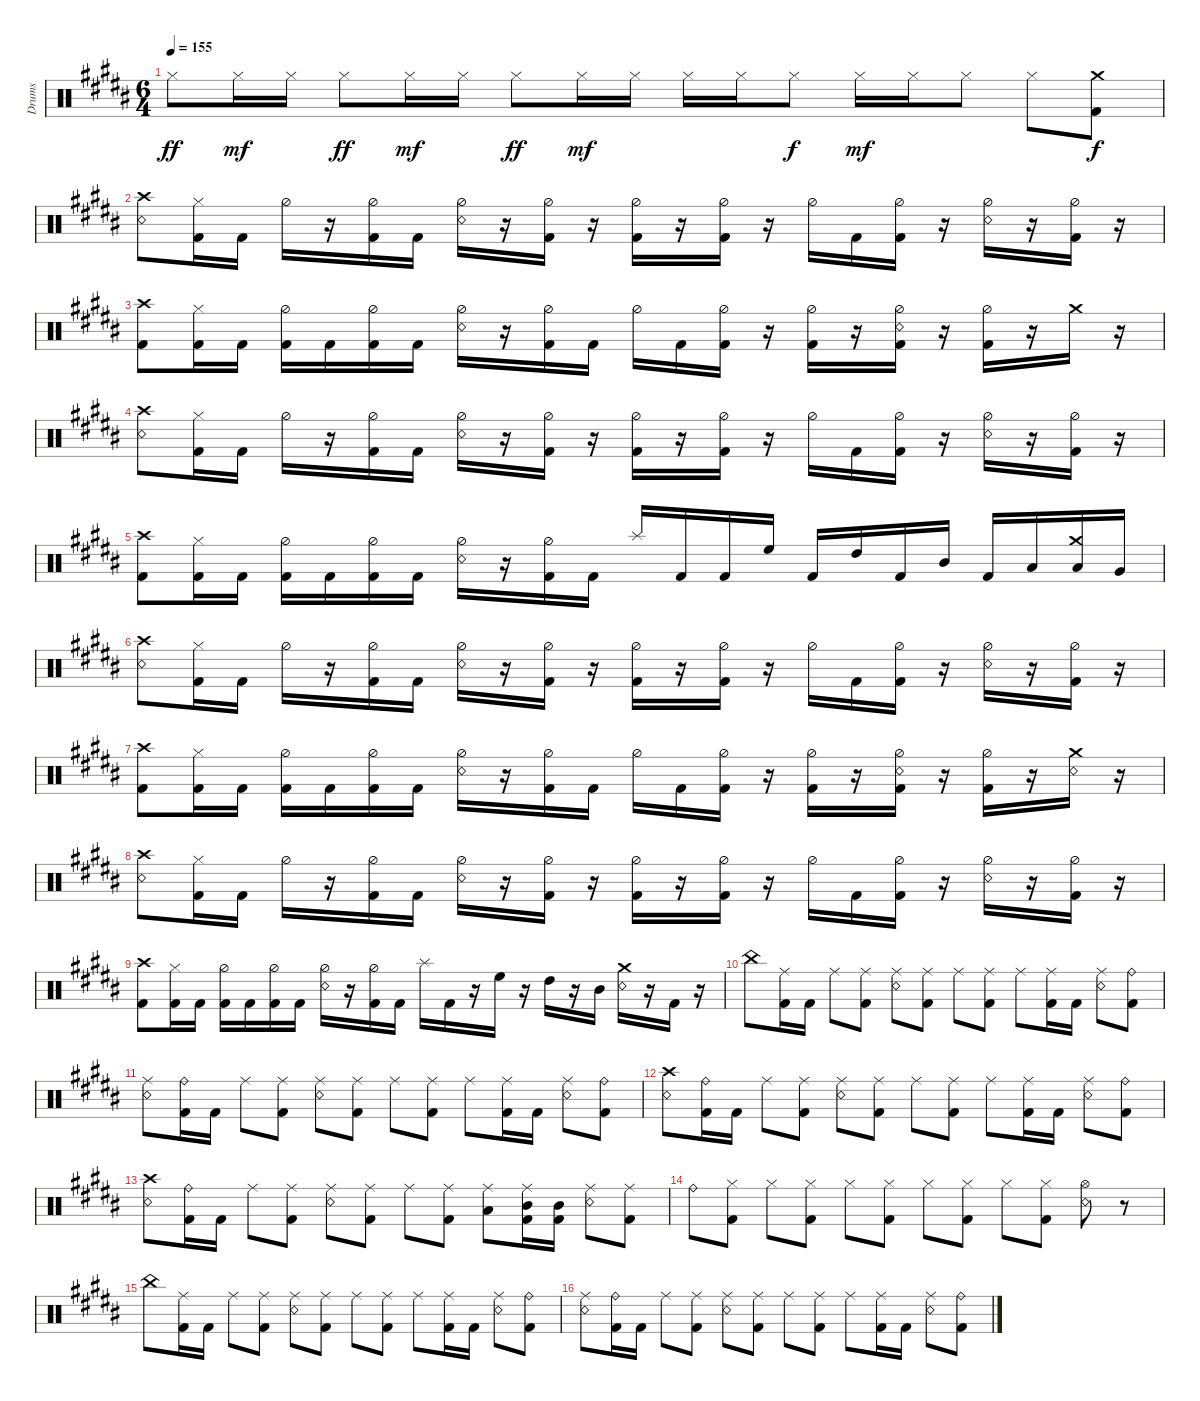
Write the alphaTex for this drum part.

\bracketExtendMode groupsimilarinstruments
\otherSystemsTrackNameOrientation horizontal
\track ("Drumkit" "Drums") {instrument percussion}
\staff {score}
\articulation defaults
\ts (6 4)
\tempo 155
\clef neutral
\ks b "Hi-Hat (closed)"{acc bb}.8{dy ff beam Down} "Hi-Hat (closed)"{acc bb}.16{dy mf beam Down} "Hi-Hat (closed)"{acc bb}.16{beam Down} "Hi-Hat (closed)"{acc bb}.8{dy ff beam Down} "Hi-Hat (closed)"{acc bb}.16{dy mf beam Down} "Hi-Hat (closed)"{acc bb}.16{beam Down} "Hi-Hat (closed)"{acc bb}.8{dy ff beam Down} "Hi-Hat (closed)"{acc bb}.16{dy mf beam Down} "Hi-Hat (closed)"{acc bb}.16{beam Down} "Hi-Hat (closed)"{acc bb}.16{beam Down} "Hi-Hat (closed)"{acc bb}.16{beam Down} "Hi-Hat (closed)"{acc bb}.8{dy f beam Down} "Hi-Hat (closed)"{acc bb}.16{dy mf beam Down} "Hi-Hat (closed)"{acc bb}.16{beam Down} "Hi-Hat (closed)"{acc bb}.8{beam Down} "Hi-Hat (closed)"{acc bb}.8{beam Down}
("Crash medium (hit)"{acc bb} "Kick (hit) 2"{acc bb}).8{dy f beam Down} |
("Crash high (hit)"{acc bb} "Snare (rim shot)"{acc bb}).8{beam Down} ("Kick (hit) 2"{acc bb} "Hi-Hat (closed)"{acc bb}).16{beam Down} "Kick (hit) 2"{acc bb}.16{beam Down} "Hi-Hat (half)"{acc bb}.16{beam Down} r.16{beam Down} ("Kick (hit) 2"{acc bb} "Hi-Hat (half)"{acc bb}).16{beam Down} "Kick (hit) 2"{acc bb}.16{beam Down} ("Hi-Hat (half)"{acc bb} "Snare (rim shot)"{acc bb}).16{beam Down} r.16{beam Down} ("Kick (hit) 2"{acc bb} "Hi-Hat (half)"{acc bb}).16{beam Down} r.16{beam Down} ("Kick (hit) 2"{acc bb} "Hi-Hat (half)"{acc bb}).16{beam Down} r.16{beam Down} ("Kick (hit) 2"{acc bb} "Hi-Hat (half)"{acc bb}).16{beam Down} r.16{beam Down} "Hi-Hat (half)"{acc bb}.16{beam Down} "Kick (hit) 2"{acc bb}.16{beam Down} ("Kick (hit) 2"{acc bb} "Hi-Hat (half)"{acc bb}).16{beam Down} r.16{beam Down} ("Hi-Hat (half)"{acc bb} "Snare (rim shot)"{acc bb}).16{beam Down} r.16{beam Down} ("Kick (hit) 2"{acc bb} "Hi-Hat (half)"{acc bb}).16{beam Down} r.16{beam Down} |
("Crash high (hit)"{acc bb} "Kick (hit) 2"{acc bb}).8{beam Down} ("Kick (hit) 2"{acc bb} "Hi-Hat (closed)"{acc bb}).16{beam Down} "Kick (hit) 2"{acc bb}.16{beam Down} ("Hi-Hat (half)"{acc bb} "Kick (hit) 2"{acc bb}).16{beam Down} "Kick (hit) 2"{acc bb}.16{beam Down} ("Kick (hit) 2"{acc bb} "Hi-Hat (half)"{acc bb}).16{beam Down} "Kick (hit) 2"{acc bb}.16{beam Down} ("Hi-Hat (half)"{acc bb} "Snare (rim shot)"{acc bb}).16{beam Down} r.16{beam Down} ("Kick (hit) 2"{acc bb} "Hi-Hat (half)"{acc bb}).16{beam Down} "Kick (hit) 2"{acc bb}.16{beam Down} "Hi-Hat (half)"{acc bb}.16{beam Down} "Kick (hit) 2"{acc bb}.16{beam Down} ("Kick (hit) 2"{acc bb} "Hi-Hat (half)"{acc bb}).16{beam Down} r.16{beam Down} ("Hi-Hat (half)"{acc bb} "Kick (hit) 2"{acc bb}).16{beam Down} r.16{beam Down} ("Hi-Hat (half)"{acc bb} "Kick (hit) 2"{acc bb} "Snare (rim shot)"{acc bb}).16{beam Down} r.16{beam Down} ("Hi-Hat (half)"{acc bb} "Kick (hit) 2"{acc bb}).16{beam Down} r.16{beam Down} "Crash medium (hit)"{acc bb}.16{beam Down} r.16{beam Down} |
("Crash high (hit)"{acc bb} "Snare (rim shot)"{acc bb}).8{beam Down} ("Kick (hit) 2"{acc bb} "Hi-Hat (closed)"{acc bb}).16{beam Down} "Kick (hit) 2"{acc bb}.16{beam Down} "Hi-Hat (half)"{acc bb}.16{beam Down} r.16{beam Down} ("Kick (hit) 2"{acc bb} "Hi-Hat (half)"{acc bb}).16{beam Down} "Kick (hit) 2"{acc bb}.16{beam Down} ("Hi-Hat (half)"{acc bb} "Snare (rim shot)"{acc bb}).16{beam Down} r.16{beam Down} ("Kick (hit) 2"{acc bb} "Hi-Hat (half)"{acc bb}).16{beam Down} r.16{beam Down} ("Kick (hit) 2"{acc bb} "Hi-Hat (half)"{acc bb}).16{beam Down} r.16{beam Down} ("Kick (hit) 2"{acc bb} "Hi-Hat (half)"{acc bb}).16{beam Down} r.16{beam Down} "Hi-Hat (half)"{acc bb}.16{beam Down} "Kick (hit) 2"{acc bb}.16{beam Down} ("Kick (hit) 2"{acc bb} "Hi-Hat (half)"{acc bb}).16{beam Down} r.16{beam Down} ("Hi-Hat (half)"{acc bb} "Snare (rim shot)"{acc bb}).16{beam Down} r.16{beam Down} ("Kick (hit) 2"{acc bb} "Hi-Hat (half)"{acc bb}).16{beam Down} r.16{beam Down} |
("Crash high (hit)"{acc bb} "Kick (hit) 2"{acc bb}).8{beam Down} ("Kick (hit) 2"{acc bb} "Hi-Hat (closed)"{acc bb}).16{beam Down} "Kick (hit) 2"{acc bb}.16{beam Down} ("Hi-Hat (half)"{acc bb} "Kick (hit) 2"{acc bb}).16{beam Down} "Kick (hit) 2"{acc bb}.16{beam Down} ("Kick (hit) 2"{acc bb} "Hi-Hat (half)"{acc bb}).16{beam Down} "Kick (hit) 2"{acc bb}.16{beam Down} ("Hi-Hat (half)"{acc bb} "Snare (rim shot)"{acc bb}).16{beam Down} r.16{beam Down} ("Kick (hit) 2"{acc bb} "Hi-Hat (half)"{acc bb}).16{beam Down} "Kick (hit) 2"{acc bb}.16{beam Down} "Splash (hit)"{acc bb}.16{beam Up} "Kick (hit) 2"{acc bb}.16{beam Up} "Kick (hit) 2"{acc bb}.16{beam Up} "High Floor Tom (hit)"{acc bb}.16{beam Up} "Kick (hit) 2"{acc bb}.16{beam Up} "High Tom (hit)"{acc bb}.16{beam Up} "Kick (hit) 2"{acc bb}.16{beam Up} "Mid Tom (hit)"{acc bb}.16{beam Up} "Kick (hit) 2"{acc bb}.16{beam Up} "Low Tom (hit)"{acc bb}.16{beam Up} ("Low Tom (hit)"{acc bb} "Crash medium (hit)"{acc bb}).16{beam Up} "Very Low Tom (hit)"{acc bb}.16{beam Up} |
("Crash high (hit)"{acc bb} "Snare (rim shot)"{acc bb}).8{beam Down} ("Kick (hit) 2"{acc bb} "Hi-Hat (closed)"{acc bb}).16{beam Down} "Kick (hit) 2"{acc bb}.16{beam Down} "Hi-Hat (half)"{acc bb}.16{beam Down} r.16{beam Down} ("Kick (hit) 2"{acc bb} "Hi-Hat (half)"{acc bb}).16{beam Down} "Kick (hit) 2"{acc bb}.16{beam Down} ("Hi-Hat (half)"{acc bb} "Snare (rim shot)"{acc bb}).16{beam Down} r.16{beam Down} ("Kick (hit) 2"{acc bb} "Hi-Hat (half)"{acc bb}).16{beam Down} r.16{beam Down} ("Kick (hit) 2"{acc bb} "Hi-Hat (half)"{acc bb}).16{beam Down} r.16{beam Down} ("Kick (hit) 2"{acc bb} "Hi-Hat (half)"{acc bb}).16{beam Down} r.16{beam Down} "Hi-Hat (half)"{acc bb}.16{beam Down} "Kick (hit) 2"{acc bb}.16{beam Down} ("Kick (hit) 2"{acc bb} "Hi-Hat (half)"{acc bb}).16{beam Down} r.16{beam Down} ("Hi-Hat (half)"{acc bb} "Snare (rim shot)"{acc bb}).16{beam Down} r.16{beam Down} ("Kick (hit) 2"{acc bb} "Hi-Hat (half)"{acc bb}).16{beam Down} r.16{beam Down} |
("Crash high (hit)"{acc bb} "Kick (hit) 2"{acc bb}).8{beam Down} ("Kick (hit) 2"{acc bb} "Hi-Hat (closed)"{acc bb}).16{beam Down} "Kick (hit) 2"{acc bb}.16{beam Down} ("Hi-Hat (half)"{acc bb} "Kick (hit) 2"{acc bb}).16{beam Down} "Kick (hit) 2"{acc bb}.16{beam Down} ("Kick (hit) 2"{acc bb} "Hi-Hat (half)"{acc bb}).16{beam Down} "Kick (hit) 2"{acc bb}.16{beam Down} ("Hi-Hat (half)"{acc bb} "Snare (rim shot)"{acc bb}).16{beam Down} r.16{beam Down} ("Kick (hit) 2"{acc bb} "Hi-Hat (half)"{acc bb}).16{beam Down} "Kick (hit) 2"{acc bb}.16{beam Down} "Hi-Hat (half)"{acc bb}.16{beam Down} "Kick (hit) 2"{acc bb}.16{beam Down} ("Kick (hit) 2"{acc bb} "Hi-Hat (half)"{acc bb}).16{beam Down} r.16{beam Down} ("Hi-Hat (half)"{acc bb} "Kick (hit) 2"{acc bb}).16{beam Down} r.16{beam Down} ("Hi-Hat (half)"{acc bb} "Kick (hit) 2"{acc bb} "Snare (rim shot)"{acc bb}).16{beam Down} r.16{beam Down} ("Hi-Hat (half)"{acc bb} "Kick (hit) 2"{acc bb}).16{beam Down} r.16{beam Down} ("Crash medium (hit)"{acc bb} "Snare (rim shot)"{acc bb}).16{beam Down} r.16{beam Down} |
("Crash high (hit)"{acc bb} "Snare (rim shot)"{acc bb}).8{beam Down} ("Kick (hit) 2"{acc bb} "Hi-Hat (closed)"{acc bb}).16{beam Down} "Kick (hit) 2"{acc bb}.16{beam Down} "Hi-Hat (half)"{acc bb}.16{beam Down} r.16{beam Down} ("Kick (hit) 2"{acc bb} "Hi-Hat (half)"{acc bb}).16{beam Down} "Kick (hit) 2"{acc bb}.16{beam Down} ("Hi-Hat (half)"{acc bb} "Snare (rim shot)"{acc bb}).16{beam Down} r.16{beam Down} ("Kick (hit) 2"{acc bb} "Hi-Hat (half)"{acc bb}).16{beam Down} r.16{beam Down} ("Kick (hit) 2"{acc bb} "Hi-Hat (half)"{acc bb}).16{beam Down} r.16{beam Down} ("Kick (hit) 2"{acc bb} "Hi-Hat (half)"{acc bb}).16{beam Down} r.16{beam Down} "Hi-Hat (half)"{acc bb}.16{beam Down} "Kick (hit) 2"{acc bb}.16{beam Down} ("Kick (hit) 2"{acc bb} "Hi-Hat (half)"{acc bb}).16{beam Down} r.16{beam Down} ("Hi-Hat (half)"{acc bb} "Snare (rim shot)"{acc bb}).16{beam Down} r.16{beam Down} ("Kick (hit) 2"{acc bb} "Hi-Hat (half)"{acc bb}).16{beam Down} r.16{beam Down} |
("Crash high (hit)"{acc bb} "Kick (hit) 2"{acc bb}).8{beam Down} ("Kick (hit) 2"{acc bb} "Hi-Hat (closed)"{acc bb}).16{beam Down} "Kick (hit) 2"{acc bb}.16{beam Down} ("Hi-Hat (half)"{acc bb} "Kick (hit) 2"{acc bb}).16{beam Down} "Kick (hit) 2"{acc bb}.16{beam Down} ("Kick (hit) 2"{acc bb} "Hi-Hat (half)"{acc bb}).16{beam Down} "Kick (hit) 2"{acc bb}.16{beam Down} ("Hi-Hat (half)"{acc bb} "Snare (rim shot)"{acc bb}).16{beam Down} r.16{beam Down} ("Kick (hit) 2"{acc bb} "Hi-Hat (half)"{acc bb}).16{beam Down} "Kick (hit) 2"{acc bb}.16{beam Down} "Splash (hit)"{acc bb}.16{beam Down} "Kick (hit) 2"{acc bb}.16{beam Down} r.16{beam Down} "High Floor Tom (hit)"{acc bb}.16{beam Down} r.16{beam Down} "High Tom (hit)"{acc bb}.16{beam Down} r.16{beam Down} "Mid Tom (hit)"{acc bb}.16{beam Down} ("Snare (rim shot)"{acc bb} "Crash medium (hit)"{acc bb}).16{beam Down} r.16{beam Down} "Kick (hit) 2"{acc bb}.16{beam Down} r.16{beam Down} |
"China (hit)"{acc bb}.8{beam Down} ("Ride (middle)"{acc bb} "Kick (hit) 2"{acc bb}).16{beam Down} "Kick (hit) 2"{acc bb}.16{beam Down} "Ride (middle)"{acc bb}.8{beam Down} ("Ride (middle)"{acc bb} "Kick (hit) 2"{acc bb}).8{beam Down} ("Ride (middle)"{acc bb} "Snare (rim shot)"{acc bb}).8{beam Down} ("Ride (middle)"{acc bb} "Kick (hit) 2"{acc bb}).8{beam Down} "Ride (middle)"{acc bb}.8{beam Down} ("Kick (hit) 2"{acc bb} "Ride (middle)"{acc bb}).8{beam Down} "Ride (middle)"{acc bb}.8{beam Down} ("Ride (middle)"{acc bb} "Kick (hit) 2"{acc bb}).16{beam Down} "Kick (hit) 2"{acc bb}.16{beam Down} ("Ride (middle)"{acc bb} "Snare (rim shot)"{acc bb}).8{beam Down} ("Ride (bell)"{acc bb} "Kick (hit) 2"{acc bb}).8{beam Down} |
("Snare (rim shot)"{acc bb} "Ride (middle)"{acc bb}).8{beam Down} ("Ride (bell)"{acc bb} "Kick (hit) 2"{acc bb}).16{beam Down} "Kick (hit) 2"{acc bb}.16{beam Down} "Ride (middle)"{acc bb}.8{beam Down} ("Ride (middle)"{acc bb} "Kick (hit) 2"{acc bb}).8{beam Down} ("Ride (middle)"{acc bb} "Snare (rim shot)"{acc bb}).8{beam Down} ("Ride (middle)"{acc bb} "Kick (hit) 2"{acc bb}).8{beam Down} "Ride (middle)"{acc bb}.8{beam Down} ("Kick (hit) 2"{acc bb} "Ride (middle)"{acc bb}).8{beam Down} "Ride (middle)"{acc bb}.8{beam Down} ("Ride (middle)"{acc bb} "Kick (hit) 2"{acc bb}).16{beam Down} "Kick (hit) 2"{acc bb}.16{beam Down} ("Ride (middle)"{acc bb} "Snare (rim shot)"{acc bb}).8{beam Down} ("Ride (bell)"{acc bb} "Kick (hit) 2"{acc bb}).8{beam Down} |
("Snare (rim shot)"{acc bb} "Crash high (hit)"{acc bb}).8{beam Down} ("Ride (bell)"{acc bb} "Kick (hit) 2"{acc bb}).16{beam Down} "Kick (hit) 2"{acc bb}.16{beam Down} "Ride (middle)"{acc bb}.8{beam Down} ("Ride (middle)"{acc bb} "Kick (hit) 2"{acc bb}).8{beam Down} ("Ride (middle)"{acc bb} "Snare (rim shot)"{acc bb}).8{beam Down} ("Ride (middle)"{acc bb} "Kick (hit) 2"{acc bb}).8{beam Down} "Ride (middle)"{acc bb}.8{beam Down} ("Kick (hit) 2"{acc bb} "Ride (middle)"{acc bb}).8{beam Down} "Ride (middle)"{acc bb}.8{beam Down} ("Ride (middle)"{acc bb} "Kick (hit) 2"{acc bb}).16{beam Down} "Kick (hit) 2"{acc bb}.16{beam Down} ("Ride (middle)"{acc bb} "Snare (rim shot)"{acc bb}).8{beam Down} ("Ride (bell)"{acc bb} "Kick (hit) 2"{acc bb}).8{beam Down} |
("Snare (rim shot)"{acc bb} "Crash high (hit)"{acc bb}).8{beam Down} ("Ride (bell)"{acc bb} "Kick (hit) 2"{acc bb}).16{beam Down} "Kick (hit) 2"{acc bb}.16{beam Down} "Ride (middle)"{acc bb}.8{beam Down} ("Ride (middle)"{acc bb} "Kick (hit) 2"{acc bb}).8{beam Down} ("Ride (middle)"{acc bb} "Snare (rim shot)"{acc bb}).8{beam Down} ("Ride (middle)"{acc bb} "Kick (hit) 2"{acc bb}).8{beam Down} "Ride (middle)"{acc bb}.8{beam Down} ("Kick (hit) 2"{acc bb} "Ride (middle)"{acc bb}).8{beam Down} ("Ride (middle)"{acc bb} "Low Tom (hit)"{acc bb}).8{beam Down} ("Ride (middle)"{acc bb} "Kick (hit) 2"{acc bb} "Mid Tom (hit)"{acc bb}).16{beam Down} ("Kick (hit) 2"{acc bb} "Mid Tom (hit)"{acc bb}).16{beam Down} ("Ride (middle)"{acc bb} "Snare (rim shot)"{acc bb}).8{beam Down} ("Kick (hit) 2"{acc bb} "Ride (middle)"{acc bb}).8{beam Down} |
"Ride (bell)"{acc bb}.8{beam Down} ("Hi-Hat (closed)"{acc bb} "Kick (hit) 2"{acc bb}).8{beam Down} "Hi-Hat (closed)"{acc bb}.8{beam Down} ("Hi-Hat (closed)"{acc bb} "Kick (hit) 2"{acc bb}).8{beam Down} "Hi-Hat (closed)"{acc bb}.8{beam Down} ("Hi-Hat (closed)"{acc bb} "Kick (hit) 2"{acc bb}).8{beam Down} "Hi-Hat (closed)"{acc bb}.8{beam Down} ("Hi-Hat (closed)"{acc bb} "Kick (hit) 2"{acc bb}).8{beam Down} "Hi-Hat (closed)"{acc bb}.8{beam Down} ("Hi-Hat (closed)"{acc bb} "Kick (hit) 2"{acc bb}).8{beam Down} ("Hi-Hat (open)"{acc bb} "Snare (rim shot)"{acc bb}).8{beam Down} r.8{beam Down} |
"China (hit)"{acc bb}.8{beam Down} ("Ride (middle)"{acc bb} "Kick (hit) 2"{acc bb}).16{beam Down} "Kick (hit) 2"{acc bb}.16{beam Down} "Ride (middle)"{acc bb}.8{beam Down} ("Ride (middle)"{acc bb} "Kick (hit) 2"{acc bb}).8{beam Down} ("Ride (middle)"{acc bb} "Snare (rim shot)"{acc bb}).8{beam Down} ("Ride (middle)"{acc bb} "Kick (hit) 2"{acc bb}).8{beam Down} "Ride (middle)"{acc bb}.8{beam Down} ("Kick (hit) 2"{acc bb} "Ride (middle)"{acc bb}).8{beam Down} "Ride (middle)"{acc bb}.8{beam Down} ("Ride (middle)"{acc bb} "Kick (hit) 2"{acc bb}).16{beam Down} "Kick (hit) 2"{acc bb}.16{beam Down} ("Ride (middle)"{acc bb} "Snare (rim shot)"{acc bb}).8{beam Down} ("Ride (bell)"{acc bb} "Kick (hit) 2"{acc bb}).8{beam Down} |
("Snare (rim shot)"{acc bb} "Ride (middle)"{acc bb}).8{beam Down} ("Ride (bell)"{acc bb} "Kick (hit) 2"{acc bb}).16{beam Down} "Kick (hit) 2"{acc bb}.16{beam Down} "Ride (middle)"{acc bb}.8{beam Down} ("Ride (middle)"{acc bb} "Kick (hit) 2"{acc bb}).8{beam Down} ("Ride (middle)"{acc bb} "Snare (rim shot)"{acc bb}).8{beam Down} ("Ride (middle)"{acc bb} "Kick (hit) 2"{acc bb}).8{beam Down} "Ride (middle)"{acc bb}.8{beam Down} ("Kick (hit) 2"{acc bb} "Ride (middle)"{acc bb}).8{beam Down} "Ride (middle)"{acc bb}.8{beam Down} ("Ride (middle)"{acc bb} "Kick (hit) 2"{acc bb}).16{beam Down} "Kick (hit) 2"{acc bb}.16{beam Down} ("Ride (middle)"{acc bb} "Snare (rim shot)"{acc bb}).8{beam Down} ("Ride (bell)"{acc bb} "Kick (hit) 2"{acc bb}).8{beam Down}
